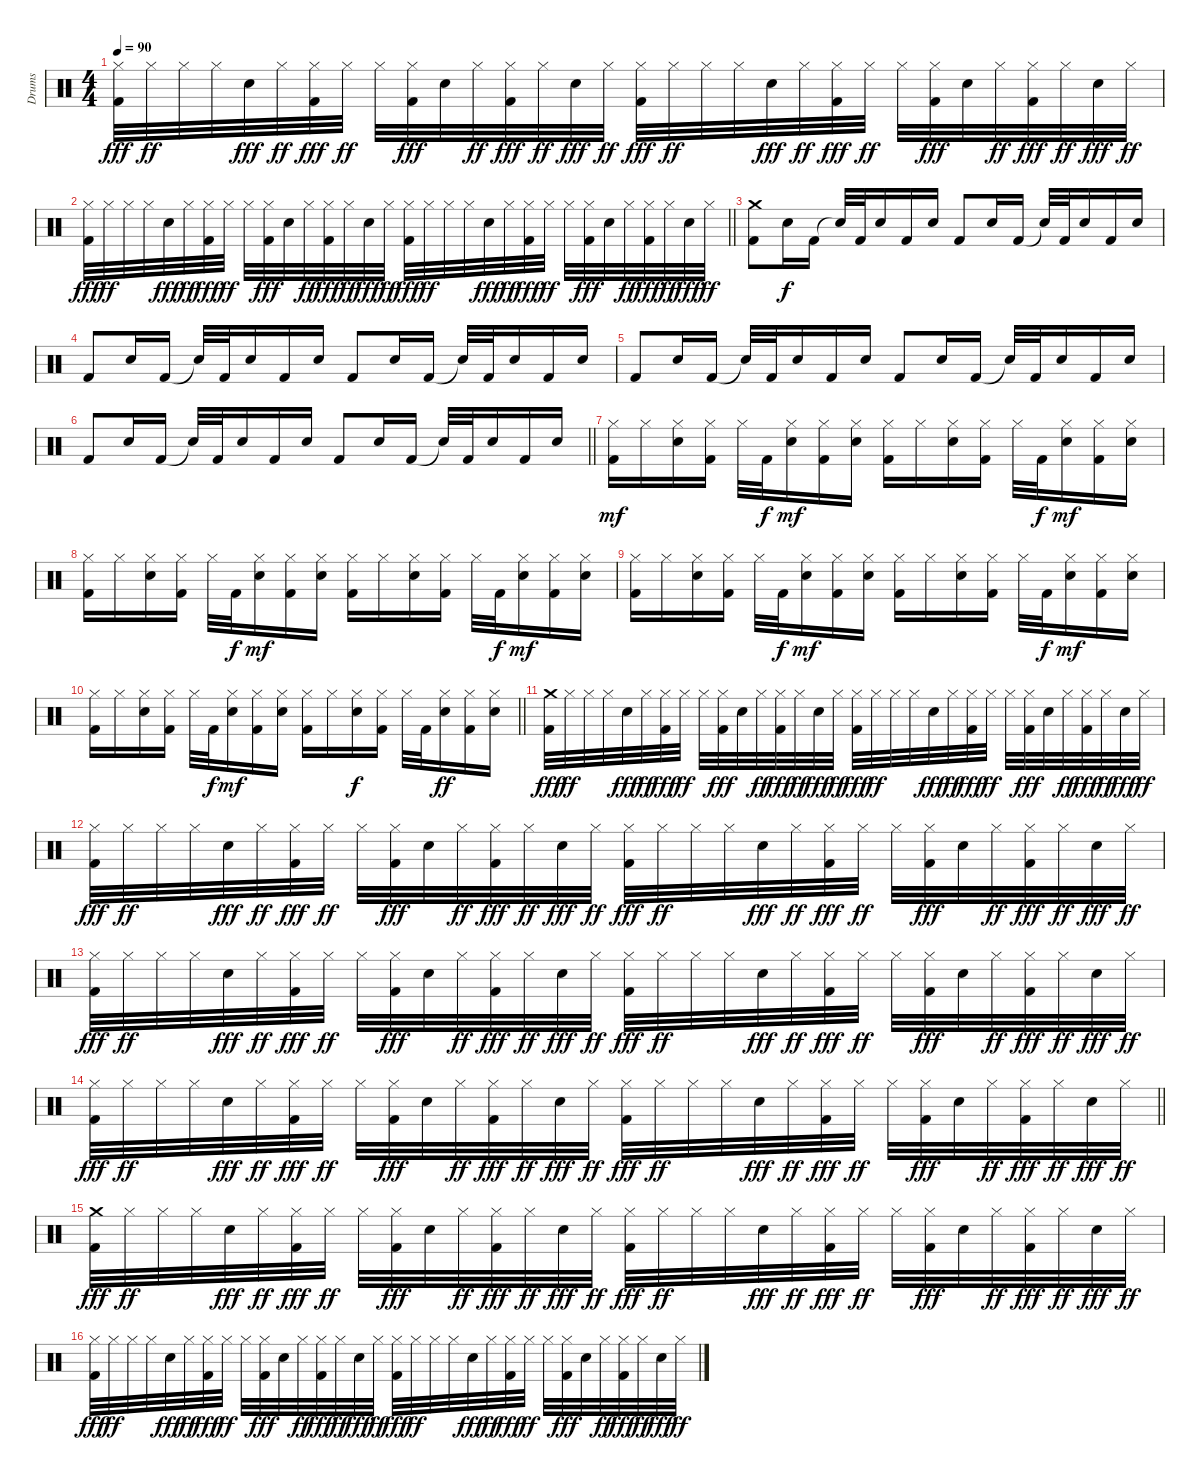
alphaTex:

\track ("Drums" "Drums") {instrument percussion}
\staff {score}
\articulation defaults
\ts (4 4)
\tempo 90
\clef neutral
\ks c
("Hi-Hat (closed)" "Kick (hit) 2").32{dy fff} "Hi-Hat (closed)".32{dy ff} "Hi-Hat (closed)".32 "Hi-Hat (closed)".32 "Snare (hit) 2".32{dy fff} "Hi-Hat (closed)".32{dy ff} ("Hi-Hat (closed)" "Kick (hit) 2").32{dy fff} "Hi-Hat (closed)".32{dy ff} "Hi-Hat (closed)".32 ("Hi-Hat (closed)" "Kick (hit) 2").32{dy fff} "Snare (hit) 2".32 "Hi-Hat (closed)".32{dy ff} ("Hi-Hat (closed)" "Kick (hit) 2").32{dy fff} "Hi-Hat (closed)".32{dy ff} "Snare (hit) 2".32{dy fff} "Hi-Hat (closed)".32{dy ff} ("Hi-Hat (closed)" "Kick (hit) 2").32{dy fff} "Hi-Hat (closed)".32{dy ff} "Hi-Hat (closed)".32 "Hi-Hat (closed)".32 "Snare (hit) 2".32{dy fff} "Hi-Hat (closed)".32{dy ff} ("Hi-Hat (closed)" "Kick (hit) 2").32{dy fff} "Hi-Hat (closed)".32{dy ff} "Hi-Hat (closed)".32 ("Hi-Hat (closed)" "Kick (hit) 2").32{dy fff} "Snare (hit) 2".32 "Hi-Hat (closed)".32{dy ff} ("Hi-Hat (closed)" "Kick (hit) 2").32{dy fff} "Hi-Hat (closed)".32{dy ff} "Snare (hit) 2".32{dy fff} "Hi-Hat (closed)".32{dy ff} |
\barLineRight lightlight
("Hi-Hat (closed)" "Kick (hit) 2").32{dy fff} "Hi-Hat (closed)".32{dy ff} "Hi-Hat (closed)".32 "Hi-Hat (closed)".32 "Snare (hit) 2".32{dy fff} "Hi-Hat (closed)".32{dy ff} ("Hi-Hat (closed)" "Kick (hit) 2").32{dy fff} "Hi-Hat (closed)".32{dy ff} "Hi-Hat (closed)".32 ("Hi-Hat (closed)" "Kick (hit) 2").32{dy fff} "Snare (hit) 2".32 "Hi-Hat (closed)".32{dy ff} ("Hi-Hat (closed)" "Kick (hit) 2").32{dy fff} "Hi-Hat (closed)".32{dy ff} "Snare (hit) 2".32{dy fff} "Hi-Hat (closed)".32{dy ff} ("Hi-Hat (closed)" "Kick (hit) 2").32{dy fff} "Hi-Hat (closed)".32{dy ff} "Hi-Hat (closed)".32 "Hi-Hat (closed)".32 "Snare (hit) 2".32{dy fff} "Hi-Hat (closed)".32{dy ff} ("Hi-Hat (closed)" "Kick (hit) 2").32{dy fff} "Hi-Hat (closed)".32{dy ff} "Hi-Hat (closed)".32 ("Hi-Hat (closed)" "Kick (hit) 2").32{dy fff} "Snare (hit) 2".32 "Hi-Hat (closed)".32{dy ff} ("Hi-Hat (closed)" "Kick (hit) 2").32{dy fff} "Hi-Hat (closed)".32{dy ff} "Snare (hit) 2".32{dy fff} "Hi-Hat (closed)".32{dy ff} |
\section ("" "")
("Crash medium (hit)" "Kick (hit) 2").8 "Snare (hit) 2".16{dy f} "Kick (hit) 2".16 "Snare (hit)"{t}.32 "Kick (hit) 2".32 "Snare (hit) 2".16 "Kick (hit) 2".16 "Snare (hit) 2".16 "Kick (hit) 2".8 "Snare (hit) 2".16 "Kick (hit) 2".16 "Snare (hit)"{t}.32 "Kick (hit) 2".32 "Snare (hit) 2".16 "Kick (hit) 2".16 "Snare (hit) 2".16 |
"Kick (hit) 2".8 "Snare (hit) 2".16 "Kick (hit) 2".16 "Snare (hit)"{t}.32 "Kick (hit) 2".32 "Snare (hit) 2".16 "Kick (hit) 2".16 "Snare (hit) 2".16 "Kick (hit) 2".8 "Snare (hit) 2".16 "Kick (hit) 2".16 "Snare (hit)"{t}.32 "Kick (hit) 2".32 "Snare (hit) 2".16 "Kick (hit) 2".16 "Snare (hit) 2".16 |
"Kick (hit) 2".8 "Snare (hit) 2".16 "Kick (hit) 2".16 "Snare (hit)"{t}.32 "Kick (hit) 2".32 "Snare (hit) 2".16 "Kick (hit) 2".16 "Snare (hit) 2".16 "Kick (hit) 2".8 "Snare (hit) 2".16 "Kick (hit) 2".16 "Snare (hit)"{t}.32 "Kick (hit) 2".32 "Snare (hit) 2".16 "Kick (hit) 2".16 "Snare (hit) 2".16 |
\barLineRight lightlight "Kick (hit) 2".8 "Snare (hit) 2".16 "Kick (hit) 2".16 "Snare (hit)"{t}.32 "Kick (hit) 2".32 "Snare (hit) 2".16 "Kick (hit) 2".16 "Snare (hit) 2".16 "Kick (hit) 2".8 "Snare (hit) 2".16 "Kick (hit) 2".16 "Snare (hit)"{t}.32 "Kick (hit) 2".32 "Snare (hit) 2".16 "Kick (hit) 2".16 "Snare (hit) 2".16
|
\section ("" "")
("Hi-Hat (closed)" "Kick (hit) 2").16{dy mf} "Hi-Hat (closed)".16 ("Hi-Hat (closed)" "Snare (hit) 2").16 ("Hi-Hat (closed)" "Kick (hit) 2").16 "Hi-Hat (closed)".32 "Kick (hit) 2".32{dy f} ("Hi-Hat (closed)" "Snare (hit) 2").16{dy mf} ("Hi-Hat (closed)" "Kick (hit) 2").16 ("Hi-Hat (closed)" "Snare (hit) 2").16 ("Hi-Hat (closed)" "Kick (hit) 2").16 "Hi-Hat (closed)".16 ("Hi-Hat (closed)" "Snare (hit) 2").16 ("Hi-Hat (closed)" "Kick (hit) 2").16 "Hi-Hat (closed)".32 "Kick (hit) 2".32{dy f} ("Hi-Hat (closed)" "Snare (hit) 2").16{dy mf} ("Hi-Hat (closed)" "Kick (hit) 2").16 ("Hi-Hat (closed)" "Snare (hit) 2").16 |
("Hi-Hat (closed)" "Kick (hit) 2").16 "Hi-Hat (closed)".16 ("Hi-Hat (closed)" "Snare (hit) 2").16 ("Hi-Hat (closed)" "Kick (hit) 2").16 "Hi-Hat (closed)".32 "Kick (hit) 2".32{dy f} ("Hi-Hat (closed)" "Snare (hit) 2").16{dy mf} ("Hi-Hat (closed)" "Kick (hit) 2").16 ("Hi-Hat (closed)" "Snare (hit) 2").16 ("Hi-Hat (closed)" "Kick (hit) 2").16 "Hi-Hat (closed)".16 ("Hi-Hat (closed)" "Snare (hit) 2").16 ("Hi-Hat (closed)" "Kick (hit) 2").16 "Hi-Hat (closed)".32 "Kick (hit) 2".32{dy f} ("Hi-Hat (closed)" "Snare (hit) 2").16{dy mf} ("Hi-Hat (closed)" "Kick (hit) 2").16 ("Hi-Hat (closed)" "Snare (hit) 2").16 |
("Hi-Hat (closed)" "Kick (hit) 2").16 "Hi-Hat (closed)".16 ("Hi-Hat (closed)" "Snare (hit) 2").16 ("Hi-Hat (closed)" "Kick (hit) 2").16 "Hi-Hat (closed)".32 "Kick (hit) 2".32{dy f} ("Hi-Hat (closed)" "Snare (hit) 2").16{dy mf} ("Hi-Hat (closed)" "Kick (hit) 2").16 ("Hi-Hat (closed)" "Snare (hit) 2").16 ("Hi-Hat (closed)" "Kick (hit) 2").16 "Hi-Hat (closed)".16 ("Hi-Hat (closed)" "Snare (hit) 2").16 ("Hi-Hat (closed)" "Kick (hit) 2").16 "Hi-Hat (closed)".32 "Kick (hit) 2".32{dy f} ("Hi-Hat (closed)" "Snare (hit) 2").16{dy mf} ("Hi-Hat (closed)" "Kick (hit) 2").16 ("Hi-Hat (closed)" "Snare (hit) 2").16 |
\barLineRight lightlight
("Hi-Hat (closed)" "Kick (hit) 2").16 "Hi-Hat (closed)".16 ("Hi-Hat (closed)" "Snare (hit) 2").16 ("Hi-Hat (closed)" "Kick (hit) 2").16 "Hi-Hat (closed)".32 "Kick (hit) 2".32{dy f} ("Hi-Hat (closed)" "Snare (hit) 2").16{dy mf} ("Hi-Hat (closed)" "Kick (hit) 2").16 ("Hi-Hat (closed)" "Snare (hit) 2").16 ("Hi-Hat (closed)" "Kick (hit) 2").16 "Hi-Hat (closed)".16 ("Hi-Hat (closed)" "Snare (hit) 2").16{dy f} ("Hi-Hat (closed)" "Kick (hit) 2").16 "Hi-Hat (closed)".32 "Kick (hit) 2".32 ("Hi-Hat (closed)" "Snare (hit) 2").16{dy ff} ("Hi-Hat (closed)" "Kick (hit) 2").16 ("Hi-Hat (closed)" "Snare (hit) 2").16 |
\section ("" "")
("Crash medium (hit)" "Kick (hit) 2").32{dy fff} "Hi-Hat (closed)".32{dy ff} "Hi-Hat (closed)".32 "Hi-Hat (closed)".32 "Snare (hit) 2".32{dy fff} "Hi-Hat (closed)".32{dy ff} ("Hi-Hat (closed)" "Kick (hit) 2").32{dy fff} "Hi-Hat (closed)".32{dy ff} "Hi-Hat (closed)".32 ("Hi-Hat (closed)" "Kick (hit) 2").32{dy fff} "Snare (hit) 2".32 "Hi-Hat (closed)".32{dy ff} ("Hi-Hat (closed)" "Kick (hit) 2").32{dy fff} "Hi-Hat (closed)".32{dy ff} "Snare (hit) 2".32{dy fff} "Hi-Hat (closed)".32{dy ff} ("Hi-Hat (closed)" "Kick (hit) 2").32{dy fff} "Hi-Hat (closed)".32{dy ff} "Hi-Hat (closed)".32 "Hi-Hat (closed)".32 "Snare (hit) 2".32{dy fff} "Hi-Hat (closed)".32{dy ff} ("Hi-Hat (closed)" "Kick (hit) 2").32{dy fff} "Hi-Hat (closed)".32{dy ff} "Hi-Hat (closed)".32 ("Hi-Hat (closed)" "Kick (hit) 2").32{dy fff} "Snare (hit) 2".32 "Hi-Hat (closed)".32{dy ff} ("Hi-Hat (closed)" "Kick (hit) 2").32{dy fff} "Hi-Hat (closed)".32{dy ff} "Snare (hit) 2".32{dy fff} "Hi-Hat (closed)".32{dy ff} |
("Hi-Hat (closed)" "Kick (hit) 2").32{dy fff} "Hi-Hat (closed)".32{dy ff} "Hi-Hat (closed)".32 "Hi-Hat (closed)".32 "Snare (hit) 2".32{dy fff} "Hi-Hat (closed)".32{dy ff} ("Hi-Hat (closed)" "Kick (hit) 2").32{dy fff} "Hi-Hat (closed)".32{dy ff} "Hi-Hat (closed)".32 ("Hi-Hat (closed)" "Kick (hit) 2").32{dy fff} "Snare (hit) 2".32 "Hi-Hat (closed)".32{dy ff} ("Hi-Hat (closed)" "Kick (hit) 2").32{dy fff} "Hi-Hat (closed)".32{dy ff} "Snare (hit) 2".32{dy fff} "Hi-Hat (closed)".32{dy ff} ("Hi-Hat (closed)" "Kick (hit) 2").32{dy fff} "Hi-Hat (closed)".32{dy ff} "Hi-Hat (closed)".32 "Hi-Hat (closed)".32 "Snare (hit) 2".32{dy fff} "Hi-Hat (closed)".32{dy ff} ("Hi-Hat (closed)" "Kick (hit) 2").32{dy fff} "Hi-Hat (closed)".32{dy ff} "Hi-Hat (closed)".32 ("Hi-Hat (closed)" "Kick (hit) 2").32{dy fff} "Snare (hit) 2".32 "Hi-Hat (closed)".32{dy ff} ("Hi-Hat (closed)" "Kick (hit) 2").32{dy fff} "Hi-Hat (closed)".32{dy ff} "Snare (hit) 2".32{dy fff} "Hi-Hat (closed)".32{dy ff} |
("Hi-Hat (closed)" "Kick (hit) 2").32{dy fff} "Hi-Hat (closed)".32{dy ff} "Hi-Hat (closed)".32 "Hi-Hat (closed)".32 "Snare (hit) 2".32{dy fff} "Hi-Hat (closed)".32{dy ff} ("Hi-Hat (closed)" "Kick (hit) 2").32{dy fff} "Hi-Hat (closed)".32{dy ff} "Hi-Hat (closed)".32 ("Hi-Hat (closed)" "Kick (hit) 2").32{dy fff} "Snare (hit) 2".32 "Hi-Hat (closed)".32{dy ff} ("Hi-Hat (closed)" "Kick (hit) 2").32{dy fff} "Hi-Hat (closed)".32{dy ff} "Snare (hit) 2".32{dy fff} "Hi-Hat (closed)".32{dy ff} ("Hi-Hat (closed)" "Kick (hit) 2").32{dy fff} "Hi-Hat (closed)".32{dy ff} "Hi-Hat (closed)".32 "Hi-Hat (closed)".32 "Snare (hit) 2".32{dy fff} "Hi-Hat (closed)".32{dy ff} ("Hi-Hat (closed)" "Kick (hit) 2").32{dy fff} "Hi-Hat (closed)".32{dy ff} "Hi-Hat (closed)".32 ("Hi-Hat (closed)" "Kick (hit) 2").32{dy fff} "Snare (hit) 2".32 "Hi-Hat (closed)".32{dy ff} ("Hi-Hat (closed)" "Kick (hit) 2").32{dy fff} "Hi-Hat (closed)".32{dy ff} "Snare (hit) 2".32{dy fff} "Hi-Hat (closed)".32{dy ff} |
\barLineRight lightlight
("Hi-Hat (closed)" "Kick (hit) 2").32{dy fff} "Hi-Hat (closed)".32{dy ff} "Hi-Hat (closed)".32 "Hi-Hat (closed)".32 "Snare (hit) 2".32{dy fff} "Hi-Hat (closed)".32{dy ff} ("Hi-Hat (closed)" "Kick (hit) 2").32{dy fff} "Hi-Hat (closed)".32{dy ff} "Hi-Hat (closed)".32 ("Hi-Hat (closed)" "Kick (hit) 2").32{dy fff} "Snare (hit) 2".32 "Hi-Hat (closed)".32{dy ff} ("Hi-Hat (closed)" "Kick (hit) 2").32{dy fff} "Hi-Hat (closed)".32{dy ff} "Snare (hit) 2".32{dy fff} "Hi-Hat (closed)".32{dy ff} ("Hi-Hat (closed)" "Kick (hit) 2").32{dy fff} "Hi-Hat (closed)".32{dy ff} "Hi-Hat (closed)".32 "Hi-Hat (closed)".32 "Snare (hit) 2".32{dy fff} "Hi-Hat (closed)".32{dy ff} ("Hi-Hat (closed)" "Kick (hit) 2").32{dy fff} "Hi-Hat (closed)".32{dy ff} "Hi-Hat (closed)".32 ("Hi-Hat (closed)" "Kick (hit) 2").32{dy fff} "Snare (hit) 2".32 "Hi-Hat (closed)".32{dy ff} ("Hi-Hat (closed)" "Kick (hit) 2").32{dy fff} "Hi-Hat (closed)".32{dy ff} "Snare (hit) 2".32{dy fff} "Hi-Hat (closed)".32{dy ff} |
("Crash medium (hit)" "Kick (hit) 2").32{dy fff} "Hi-Hat (closed)".32{dy ff} "Hi-Hat (closed)".32 "Hi-Hat (closed)".32 "Snare (hit) 2".32{dy fff} "Hi-Hat (closed)".32{dy ff} ("Hi-Hat (closed)" "Kick (hit) 2").32{dy fff} "Hi-Hat (closed)".32{dy ff} "Hi-Hat (closed)".32 ("Hi-Hat (closed)" "Kick (hit) 2").32{dy fff} "Snare (hit) 2".32 "Hi-Hat (closed)".32{dy ff} ("Hi-Hat (closed)" "Kick (hit) 2").32{dy fff} "Hi-Hat (closed)".32{dy ff} "Snare (hit) 2".32{dy fff} "Hi-Hat (closed)".32{dy ff} ("Hi-Hat (closed)" "Kick (hit) 2").32{dy fff} "Hi-Hat (closed)".32{dy ff} "Hi-Hat (closed)".32 "Hi-Hat (closed)".32 "Snare (hit) 2".32{dy fff} "Hi-Hat (closed)".32{dy ff} ("Hi-Hat (closed)" "Kick (hit) 2").32{dy fff} "Hi-Hat (closed)".32{dy ff} "Hi-Hat (closed)".32 ("Hi-Hat (closed)" "Kick (hit) 2").32{dy fff} "Snare (hit) 2".32 "Hi-Hat (closed)".32{dy ff} ("Hi-Hat (closed)" "Kick (hit) 2").32{dy fff} "Hi-Hat (closed)".32{dy ff} "Snare (hit) 2".32{dy fff} "Hi-Hat (closed)".32{dy ff} |
("Hi-Hat (closed)" "Kick (hit) 2").32{dy fff} "Hi-Hat (closed)".32{dy ff} "Hi-Hat (closed)".32 "Hi-Hat (closed)".32 "Snare (hit) 2".32{dy fff} "Hi-Hat (closed)".32{dy ff} ("Hi-Hat (closed)" "Kick (hit) 2").32{dy fff} "Hi-Hat (closed)".32{dy ff} "Hi-Hat (closed)".32 ("Hi-Hat (closed)" "Kick (hit) 2").32{dy fff} "Snare (hit) 2".32 "Hi-Hat (closed)".32{dy ff} ("Hi-Hat (closed)" "Kick (hit) 2").32{dy fff} "Hi-Hat (closed)".32{dy ff} "Snare (hit) 2".32{dy fff} "Hi-Hat (closed)".32{dy ff} ("Hi-Hat (closed)" "Kick (hit) 2").32{dy fff} "Hi-Hat (closed)".32{dy ff} "Hi-Hat (closed)".32 "Hi-Hat (closed)".32 "Snare (hit) 2".32{dy fff} "Hi-Hat (closed)".32{dy ff} ("Hi-Hat (closed)" "Kick (hit) 2").32{dy fff} "Hi-Hat (closed)".32{dy ff} "Hi-Hat (closed)".32 ("Hi-Hat (closed)" "Kick (hit) 2").32{dy fff} "Snare (hit) 2".32 "Hi-Hat (closed)".32{dy ff} ("Hi-Hat (closed)" "Kick (hit) 2").32{dy fff} "Hi-Hat (closed)".32{dy ff} "Snare (hit) 2".32{dy fff} "Hi-Hat (closed)".32{dy ff}
